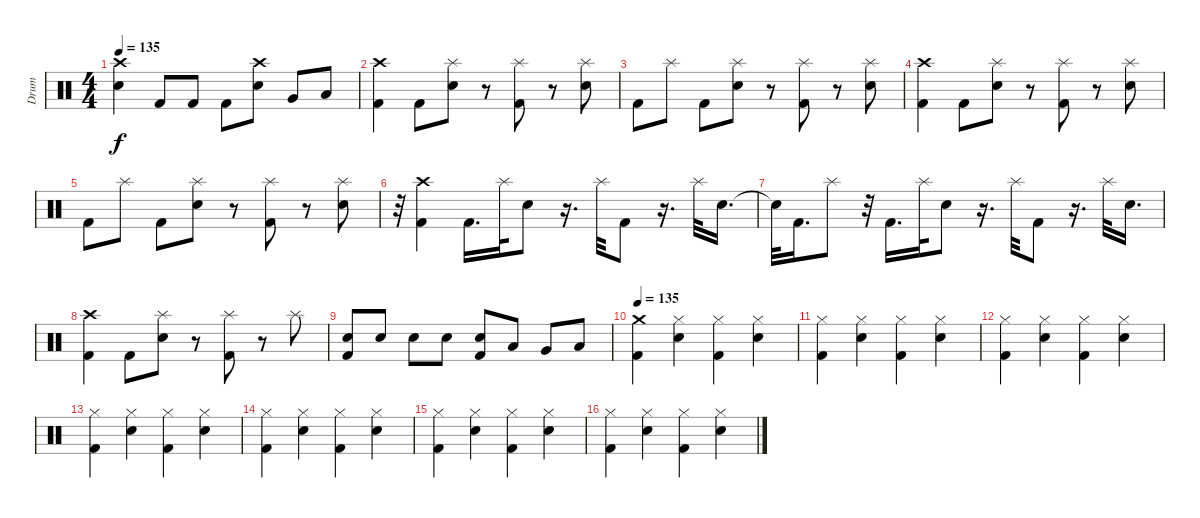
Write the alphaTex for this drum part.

\track ("Drum" "Drum") {instrument percussion}
\staff {score}
\articulation defaults
\ts (4 4)
\tempo 135
\clef neutral
\ks c
("Crash high (hit)" "Electric Snare (hit)").4{dy f} "Kick (hit) 2".8 "Kick (hit) 2".8 "Kick (hit) 2".8 ("Crash high (hit)" "Electric Snare (hit)").8 "Very Low Tom (hit)".8 "Low Floor Tom (hit)".8 |
("Crash high (hit)" "Kick (hit) 2").4 "Kick (hit) 2".8 ("Splash (hit)" "Electric Snare (hit)").8 r.8 ("Splash (hit)" "Kick (hit) 2").8 r.8 ("Splash (hit)" "Electric Snare (hit)").8 |
"Kick (hit) 2".8 "Splash (hit)".8 "Kick (hit) 2".8 ("Splash (hit)" "Electric Snare (hit)").8 r.8 ("Splash (hit)" "Kick (hit) 2").8 r.8 ("Splash (hit)" "Electric Snare (hit)").8 |
("Crash high (hit)" "Kick (hit) 2").4 "Kick (hit) 2".8 ("Splash (hit)" "Electric Snare (hit)").8 r.8 ("Splash (hit)" "Kick (hit) 2").8 r.8 ("Splash (hit)" "Electric Snare (hit)").8 |
"Kick (hit) 2".8 "Splash (hit)".8 "Kick (hit) 2".8 ("Splash (hit)" "Electric Snare (hit)").8 r.8 ("Splash (hit)" "Kick (hit) 2").8 r.8 ("Splash (hit)" "Electric Snare (hit)").8 |
r.32 ("Crash high (hit)" "Kick (hit) 2").4 "Kick (hit) 2".16{d} "Splash (hit)".32 "Electric Snare (hit)".8 r.16{d} "Splash (hit)".32 "Kick (hit) 2".8 r.16{d} "Splash (hit)".32 "Electric Snare (hit)".16{d} |
"Snare (hit)"{t}.32 "Kick (hit) 2".16{d} "Splash (hit)".8 r.32 "Kick (hit) 2".16{d} "Splash (hit)".32 "Electric Snare (hit)".8 r.16{d} "Splash (hit)".32 "Kick (hit) 2".8 r.16{d} "Splash (hit)".32 "Electric Snare (hit)".16{d} |
("Crash high (hit)" "Kick (hit) 2").4 "Kick (hit) 2".8 ("Splash (hit)" "Electric Snare (hit)").8 r.8 ("Splash (hit)" "Kick (hit) 2").8 r.8 "Splash (hit)".8 |
("Electric Snare (hit)" "Kick (hit) 2").8 "Electric Snare (hit)".8 "Electric Snare (hit)".8 "Electric Snare (hit)".8 ("Electric Snare (hit)" "Kick (hit) 2").8 "Low Tom (hit)".8 "Very Low Tom (hit)".8 "Low Floor Tom (hit)".8 |
\tempo 135
("Kick (hit) 2" "Crash medium (hit)").4 ("Hi-Hat (closed)" "Electric Snare (hit)").4 ("Hi-Hat (closed)" "Kick (hit) 2").4 ("Hi-Hat (closed)" "Electric Snare (hit)").4 |
("Hi-Hat (closed)" "Kick (hit) 2").4 ("Hi-Hat (closed)" "Electric Snare (hit)").4 ("Kick (hit) 2" "Hi-Hat (closed)").4 ("Electric Snare (hit)" "Hi-Hat (closed)").4 |
("Hi-Hat (closed)" "Kick (hit) 2").4 ("Hi-Hat (closed)" "Electric Snare (hit)").4 ("Hi-Hat (closed)" "Kick (hit) 2").4 ("Hi-Hat (closed)" "Electric Snare (hit)").4 |
("Hi-Hat (closed)" "Kick (hit) 2").4 ("Hi-Hat (closed)" "Electric Snare (hit)").4 ("Kick (hit) 2" "Hi-Hat (closed)").4 ("Electric Snare (hit)" "Hi-Hat (closed)").4 |
("Hi-Hat (closed)" "Kick (hit) 2").4 ("Hi-Hat (closed)" "Electric Snare (hit)").4 ("Hi-Hat (closed)" "Kick (hit) 2").4 ("Hi-Hat (closed)" "Electric Snare (hit)").4 |
("Hi-Hat (closed)" "Kick (hit) 2").4 ("Hi-Hat (closed)" "Electric Snare (hit)").4 ("Kick (hit) 2" "Hi-Hat (closed)").4 ("Electric Snare (hit)" "Hi-Hat (closed)").4 |
("Hi-Hat (closed)" "Kick (hit) 2").4 ("Hi-Hat (closed)" "Electric Snare (hit)").4 ("Hi-Hat (closed)" "Kick (hit) 2").4 ("Hi-Hat (closed)" "Electric Snare (hit)").4
